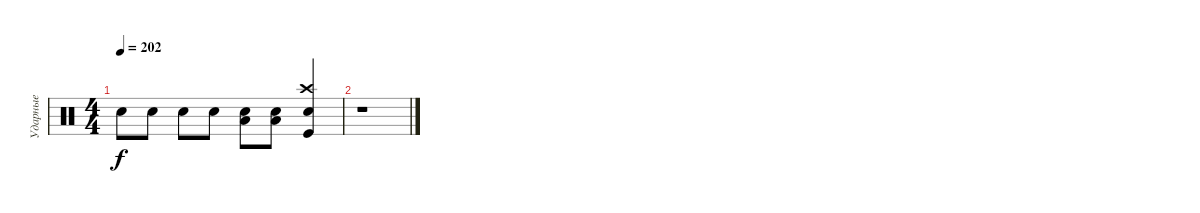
\track ("Ударные" "Ударные") {instrument percussion}
\staff {score}
\articulation defaults
\ts (4 4)
\tempo 202
\clef neutral
\ks c "Electric Snare (hit)".8{dy f} "Electric Snare (hit)".8 "Electric Snare (hit)".8 "Electric Snare (hit)".8
("Low Tom (hit)" "Electric Snare (hit)").8 ("Low Tom (hit)" "Electric Snare (hit)").8 ("Crash high (hit)" "Electric Snare (hit)" "Kick (hit)").4 |
r.1
